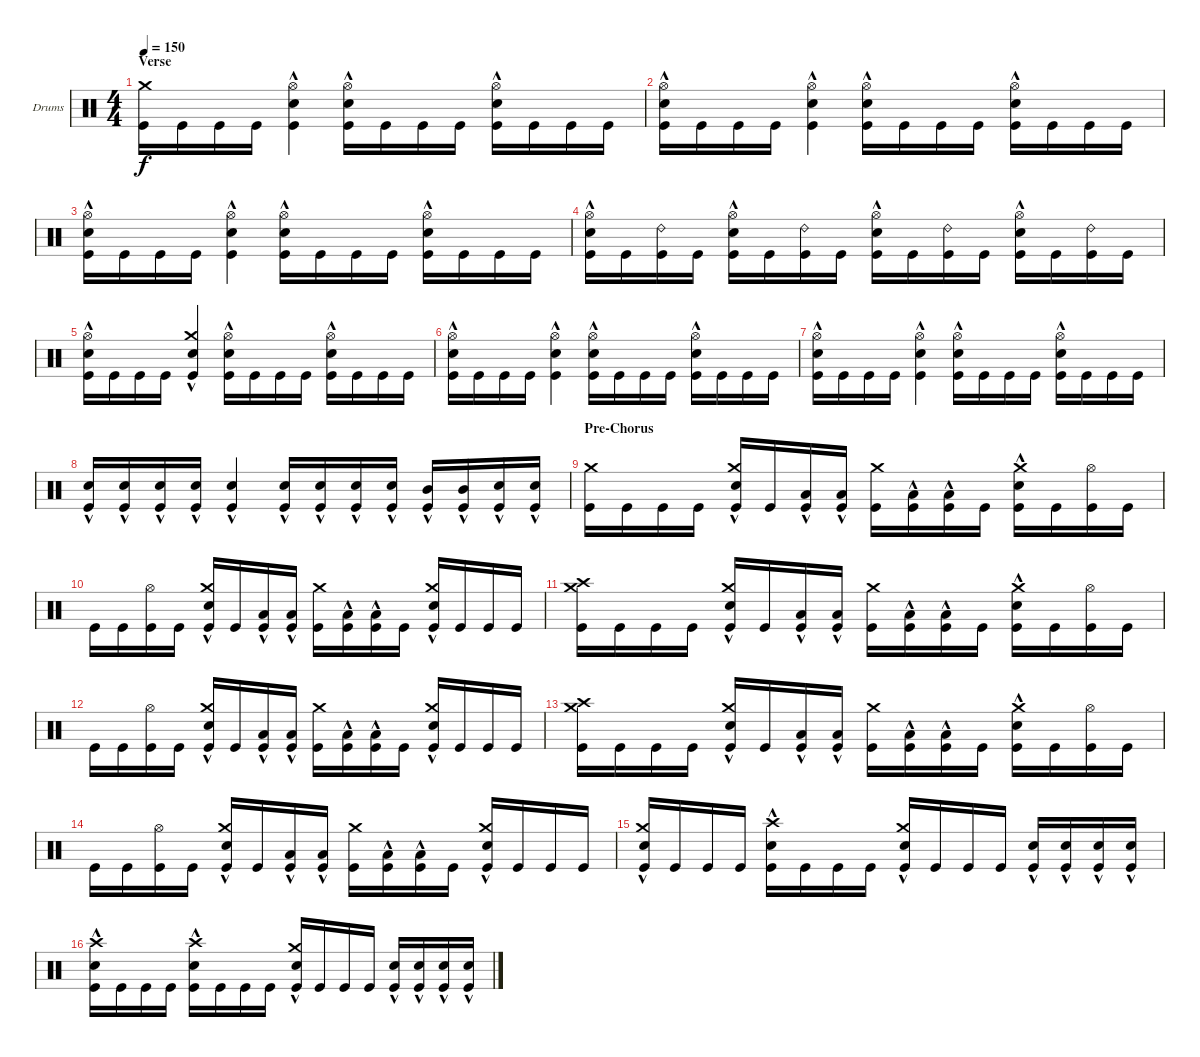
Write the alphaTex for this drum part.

\bracketExtendMode groupsimilarinstruments
\firstSystemTrackNameOrientation horizontal
\otherSystemsTrackNameOrientation horizontal
\track ("Drumkit" "Drums") {instrument percussion}
\staff {score}
\articulation defaults
\ts (4 4)
\section ("" "Verse")
\tempo 150
\clef neutral
\ks aminor
("Kick (hit)" "Crash medium (hit)").16{dy f} "Kick (hit)".16 "Kick (hit)".16 "Kick (hit)".16 ("Kick (hit)" "Snare (hit) 2"{hac} "Hi-Hat (open)").4 ("Kick (hit)" "Snare (hit) 2"{hac} "Hi-Hat (open)").16 "Kick (hit)".16 "Kick (hit)".16 "Kick (hit)".16 ("Kick (hit)" "Snare (hit) 2"{hac} "Hi-Hat (open)").16 "Kick (hit)".16 "Kick (hit)".16 "Kick (hit)".16 |
("Kick (hit)" "Snare (hit) 2"{hac} "Hi-Hat (open)").16 "Kick (hit)".16 "Kick (hit)".16 "Kick (hit)".16 ("Kick (hit)" "Snare (hit) 2"{hac} "Hi-Hat (open)").4 ("Kick (hit)" "Snare (hit) 2"{hac} "Hi-Hat (open)").16 "Kick (hit)".16 "Kick (hit)".16 "Kick (hit)".16 ("Kick (hit)" "Snare (hit) 2"{hac} "Hi-Hat (open)").16 "Kick (hit)".16 "Kick (hit)".16 "Kick (hit)".16 |
("Kick (hit)" "Snare (hit) 2"{hac} "Hi-Hat (open)").16 "Kick (hit)".16 "Kick (hit)".16 "Kick (hit)".16 ("Kick (hit)" "Snare (hit) 2"{hac} "Hi-Hat (open)").4 ("Kick (hit)" "Snare (hit) 2"{hac} "Hi-Hat (open)").16 "Kick (hit)".16 "Kick (hit)".16 "Kick (hit)".16 ("Kick (hit)" "Snare (hit) 2"{hac} "Hi-Hat (open)").16 "Kick (hit)".16 "Kick (hit)".16 "Kick (hit)".16 |
("Kick (hit)" "Snare (hit) 2"{hac} "Hi-Hat (open)").16 "Kick (hit)".16 ("Kick (hit)" "Ride (bell) 2").16 "Kick (hit)".16 ("Kick (hit)" "Snare (hit) 2"{hac} "Hi-Hat (open)").16 "Kick (hit)".16 ("Kick (hit)" "Ride (bell) 2").16 "Kick (hit)".16 ("Kick (hit)" "Snare (hit) 2"{hac} "Hi-Hat (open)").16 "Kick (hit)".16 ("Kick (hit)" "Ride (bell) 2").16 "Kick (hit)".16 ("Kick (hit)" "Snare (hit) 2"{hac} "Hi-Hat (open)").16 "Kick (hit)".16 ("Kick (hit)" "Ride (bell) 2").16 "Kick (hit)".16 |
("Kick (hit)" "Hi-Hat (open)" "Snare (hit) 2"{hac}).16 "Kick (hit)".16 "Kick (hit)".16 "Kick (hit)".16 ("Kick (hit)" "Snare (hit) 2"{hac} "Crash medium (hit)").4 ("Kick (hit)" "Snare (hit) 2"{hac} "Hi-Hat (open)").16 "Kick (hit)".16 "Kick (hit)".16 "Kick (hit)".16 ("Kick (hit)" "Snare (hit) 2"{hac} "Hi-Hat (open)").16 "Kick (hit)".16 "Kick (hit)".16 "Kick (hit)".16 |
("Kick (hit)" "Snare (hit) 2"{hac} "Hi-Hat (open)").16 "Kick (hit)".16 "Kick (hit)".16 "Kick (hit)".16 ("Kick (hit)" "Snare (hit) 2"{hac} "Hi-Hat (open)").4 ("Kick (hit)" "Snare (hit) 2"{hac} "Hi-Hat (open)").16 "Kick (hit)".16 "Kick (hit)".16 "Kick (hit)".16 ("Kick (hit)" "Snare (hit) 2"{hac} "Hi-Hat (open)").16 "Kick (hit)".16 "Kick (hit)".16 "Kick (hit)".16 |
("Kick (hit)" "Snare (hit) 2"{hac} "Hi-Hat (open)").16 "Kick (hit)".16 "Kick (hit)".16 "Kick (hit)".16 ("Kick (hit)" "Snare (hit) 2"{hac} "Hi-Hat (open)").4 ("Kick (hit)" "Snare (hit) 2"{hac} "Hi-Hat (open)").16 "Kick (hit)".16 "Kick (hit)".16 "Kick (hit)".16 ("Kick (hit)" "Snare (hit) 2"{hac} "Hi-Hat (open)").16 "Kick (hit)".16 "Kick (hit)".16 "Kick (hit)".16 |
("Snare (hit) 2"{hac} "Kick (hit)").16 ("Snare (hit) 2"{hac} "Kick (hit)").16 ("Snare (hit) 2"{hac} "Kick (hit)").16 ("Snare (hit) 2"{hac} "Kick (hit)").16 ("Snare (hit) 2"{hac} "Kick (hit)").4 ("Kick (hit)" "Snare (hit) 2"{hac}).16 ("Kick (hit)" "Snare (hit) 2"{hac}).16 ("Kick (hit)" "Snare (hit) 2"{hac}).16 ("Kick (hit)" "Snare (hit) 2"{hac}).16 ("Kick (hit)" "Mid Tom (hit)"{hac}).16 ("Kick (hit)" "Mid Tom (hit)"{hac}).16 ("Kick (hit)" "Snare (hit) 2"{hac}).16 ("Kick (hit)" "Snare (hit) 2"{hac}).16 |
\section ("" "Pre-Chorus")
("Kick (hit)" "Crash medium (hit)").16 "Kick (hit)".16 "Kick (hit)".16 "Kick (hit)".16 ("Kick (hit)" "Snare (hit) 2"{hac} "Crash medium (hit)").16 "Kick (hit)".16 ("Kick (hit)" "Low Tom (hit)"{hac}).16 ("Kick (hit)" "Low Tom (hit)"{hac}).16 ("Kick (hit)" "Crash medium (hit)").16 ("Kick (hit)" "Low Tom (hit)"{hac}).16 ("Kick (hit)" "Low Tom (hit)"{hac}).16 "Kick (hit)".16 ("Kick (hit)" "Crash medium (hit)" "Snare (hit) 2"{hac}).16 "Kick (hit)".16 ("Kick (hit)" "Hi-Hat (open)").16 "Kick (hit)".16 |
"Kick (hit)".16 "Kick (hit)".16 ("Kick (hit)" "Hi-Hat (open)").16 "Kick (hit)".16 ("Kick (hit)" "Snare (hit) 2"{hac} "Crash medium (hit)").16 "Kick (hit)".16 ("Kick (hit)" "Low Tom (hit)"{hac}).16 ("Kick (hit)" "Low Tom (hit)"{hac}).16 ("Kick (hit)" "Crash medium (hit)").16 ("Kick (hit)" "Low Tom (hit)"{hac}).16 ("Kick (hit)" "Low Tom (hit)"{hac}).16 "Kick (hit)".16 ("Kick (hit)" "Crash medium (hit)" "Snare (hit) 2"{hac}).16 "Kick (hit)".16 "Kick (hit)".16 "Kick (hit)".16 |
("Kick (hit)" "Crash medium (hit)" "Crash high (hit)").16 "Kick (hit)".16 "Kick (hit)".16 "Kick (hit)".16 ("Kick (hit)" "Snare (hit) 2"{hac} "Crash medium (hit)").16 "Kick (hit)".16 ("Kick (hit)" "Low Tom (hit)"{hac}).16 ("Kick (hit)" "Low Tom (hit)"{hac}).16 ("Kick (hit)" "Crash medium (hit)").16 ("Kick (hit)" "Low Tom (hit)"{hac}).16 ("Kick (hit)" "Low Tom (hit)"{hac}).16 "Kick (hit)".16 ("Kick (hit)" "Crash medium (hit)" "Snare (hit) 2"{hac}).16 "Kick (hit)".16 ("Kick (hit)" "Hi-Hat (open)").16 "Kick (hit)".16 |
"Kick (hit)".16 "Kick (hit)".16 ("Kick (hit)" "Hi-Hat (open)").16 "Kick (hit)".16 ("Kick (hit)" "Snare (hit) 2"{hac} "Crash medium (hit)").16 "Kick (hit)".16 ("Kick (hit)" "Low Tom (hit)"{hac}).16 ("Kick (hit)" "Low Tom (hit)"{hac}).16 ("Kick (hit)" "Crash medium (hit)").16 ("Kick (hit)" "Low Tom (hit)"{hac}).16 ("Kick (hit)" "Low Tom (hit)"{hac}).16 "Kick (hit)".16 ("Kick (hit)" "Crash medium (hit)" "Snare (hit) 2"{hac}).16 "Kick (hit)".16 "Kick (hit)".16 "Kick (hit)".16 |
("Kick (hit)" "Crash medium (hit)" "Crash high (hit)").16 "Kick (hit)".16 "Kick (hit)".16 "Kick (hit)".16 ("Kick (hit)" "Snare (hit) 2"{hac} "Crash medium (hit)").16 "Kick (hit)".16 ("Kick (hit)" "Low Tom (hit)"{hac}).16 ("Kick (hit)" "Low Tom (hit)"{hac}).16 ("Kick (hit)" "Crash medium (hit)").16 ("Kick (hit)" "Low Tom (hit)"{hac}).16 ("Kick (hit)" "Low Tom (hit)"{hac}).16 "Kick (hit)".16 ("Kick (hit)" "Crash medium (hit)" "Snare (hit) 2"{hac}).16 "Kick (hit)".16 ("Kick (hit)" "Hi-Hat (open)").16 "Kick (hit)".16 |
"Kick (hit)".16 "Kick (hit)".16 ("Kick (hit)" "Hi-Hat (open)").16 "Kick (hit)".16 ("Kick (hit)" "Snare (hit) 2"{hac} "Crash medium (hit)").16 "Kick (hit)".16 ("Kick (hit)" "Low Tom (hit)"{hac}).16 ("Kick (hit)" "Low Tom (hit)"{hac}).16 ("Kick (hit)" "Crash medium (hit)").16 ("Kick (hit)" "Low Tom (hit)"{hac}).16 ("Kick (hit)" "Low Tom (hit)"{hac}).16 "Kick (hit)".16 ("Kick (hit)" "Crash medium (hit)" "Snare (hit) 2"{hac}).16 "Kick (hit)".16 "Kick (hit)".16 "Kick (hit)".16 |
("Kick (hit)" "Snare (hit) 2"{hac} "Crash medium (hit)").16 "Kick (hit)".16 "Kick (hit)".16 "Kick (hit)".16 ("Kick (hit)" "Snare (hit) 2"{hac} "Crash high (hit)").16 "Kick (hit)".16 "Kick (hit)".16 "Kick (hit)".16 ("Kick (hit)" "Snare (hit) 2"{hac} "Crash medium (hit)").16 "Kick (hit)".16 "Kick (hit)".16 "Kick (hit)".16 ("Kick (hit)" "Snare (hit) 2"{hac}).16 ("Kick (hit)" "Snare (hit) 2"{hac}).16 ("Kick (hit)" "Snare (hit) 2"{hac}).16 ("Kick (hit)" "Snare (hit) 2"{hac}).16 |
("Kick (hit)" "Snare (hit) 2"{hac} "Crash high (hit)").16 "Kick (hit)".16 "Kick (hit)".16 "Kick (hit)".16 ("Kick (hit)" "Snare (hit) 2"{hac} "Crash high (hit)").16 "Kick (hit)".16 "Kick (hit)".16 "Kick (hit)".16 ("Kick (hit)" "Snare (hit) 2"{hac} "Crash medium (hit)").16 "Kick (hit)".16 "Kick (hit)".16 "Kick (hit)".16 ("Kick (hit)" "Snare (hit) 2"{hac}).16 ("Kick (hit)" "Snare (hit) 2"{hac}).16 ("Kick (hit)" "Snare (hit) 2"{hac}).16 ("Kick (hit)" "Snare (hit) 2"{hac}).16
